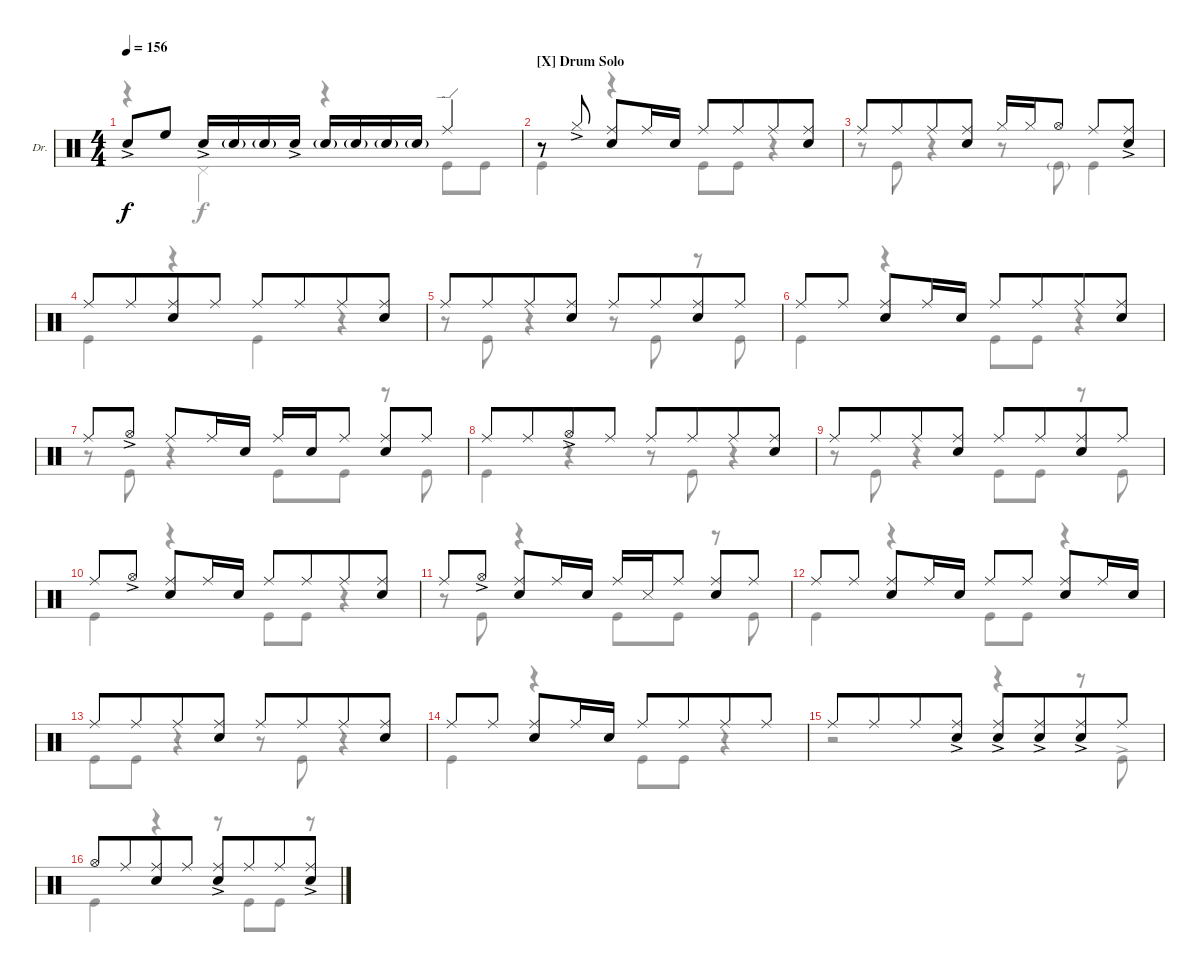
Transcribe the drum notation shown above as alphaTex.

\defaultSystemsLayout 4
\bracketExtendMode groupsimilarinstruments
\firstSystemTrackNameOrientation horizontal
\otherSystemsTrackNameOrientation horizontal
\track ("Drums" "Dr.") {instrument percussion}
\staff {score}
\articulation defaults
\voice
\ts (4 4)
\tempo 156
\clef neutral
\ks c "Snare (hit) 2"{ac}.8{dy f} "High Floor Tom (hit)".8 "Snare (hit) 2"{ac}.16 "Snare (hit) 2"{g}.16 "Snare (hit) 2"{g}.16 "Snare (hit) 2"{ac}.16 "Snare (hit) 2"{g}.16 "Snare (hit) 2"{g}.16 "Snare (hit) 2"{g}.16 "Snare (hit) 2"{g}.16 "Ride (edge)".4
|
\section ("X" "Drum Solo")
\scale
0.361744 r.8 "Hi-Hat (closed)"{ac}.8 ("Snare (hit) 2" "Ride (middle)").8 "Ride (middle)".16 "Snare (hit) 2".16 "Ride (middle)".8 "Ride (middle)".8{beam merge} "Ride (middle)".8 ("Snare (hit) 2" "Ride (middle)").8 |
\scale
0.365347 "Ride (middle)".8 "Ride (middle)".8{beam merge} "Ride (middle)".8 ("Snare (hit) 2" "Ride (middle)").8 "Hi-Hat (closed)".16 "Hi-Hat (closed)".16 "Hi-Hat (open)".8 "Ride (middle)".8 ("Snare (hit) 2"{ac} "Ride (middle)").8 |
\scale
0.272651 "Ride (middle)".8 "Ride (middle)".8{beam merge} ("Ride (middle)" "Snare (hit) 2").8 "Ride (middle)".8 "Ride (middle)".8 "Ride (middle)".8{beam merge} "Ride (middle)".8 ("Ride (middle)" "Snare (hit) 2").8 |
\scale
0.350987 "Ride (middle)".8 "Ride (middle)".8{beam merge} "Ride (middle)".8 ("Ride (middle)" "Snare (hit) 2").8 "Ride (middle)".8 "Ride (middle)".8{beam merge} ("Ride (middle)" "Snare (hit) 2").8 "Ride (middle)".8 |
\scale
0.32396 "Ride (middle)".8 "Ride (middle)".8{beam split} ("Ride (middle)" "Snare (hit) 2").8 "Ride (middle)".16 "Snare (hit) 2".16 "Ride (middle)".8 "Ride (middle)".8{beam merge} "Ride (middle)".8 ("Ride (middle)" "Snare (hit) 2").8 |
\scale
0.325552 "Ride (middle)".8 "Hi-Hat (open)"{ac}.8 "Ride (middle)".8 "Ride (middle)".16 "Snare (hit) 2".16 "Ride (middle)".16 "Snare (hit) 2".16 "Ride (middle)".8 ("Ride (middle)" "Snare (hit) 2").8 "Ride (middle)".8 |
\scale
0.325781 "Ride (middle)".8 "Ride (middle)".8{beam merge} "Hi-Hat (open)"{ac}.8 "Ride (middle)".8 "Ride (middle)".8 "Ride (middle)".8{beam merge} "Ride (middle)".8 ("Ride (middle)" "Snare (hit) 2").8 |
\scale
0.317767 "Ride (middle)".8 "Ride (middle)".8{beam merge} "Ride (middle)".8 ("Ride (middle)" "Snare (hit) 2").8 "Ride (middle)".8 "Ride (middle)".8{beam merge} ("Ride (middle)" "Snare (hit) 2").8 "Ride (middle)".8 |
\scale
0.356874 "Ride (middle)".8 "Hi-Hat (open)"{ac}.8{beam split} ("Ride (middle)" "Snare (hit) 2").8 "Ride (middle)".16 "Snare (hit) 2".16 "Ride (middle)".8 "Ride (middle)".8{beam merge} "Ride (middle)".8 ("Ride (middle)" "Snare (hit) 2").8 |
\scale
0.39749 "Ride (middle)".8 "Hi-Hat (open)"{ac}.8{beam split} ("Ride (middle)" "Snare (hit) 2").8 "Ride (middle)".16 "Snare (hit) 2".16 "Ride (middle)".16 "Snare (side stick) 3".16 "Ride (middle)".8 ("Ride (middle)" "Snare (hit) 2").8 "Ride (middle)".8 |
\scale
0.328241 "Ride (middle)".8 "Ride (middle)".8{beam split} ("Ride (middle)" "Snare (hit) 2").8 "Ride (middle)".16 "Snare (hit) 2".16 "Ride (middle)".8 "Ride (middle)".8{beam split} ("Ride (middle)" "Snare (hit) 2").8 "Ride (middle)".16 "Snare (hit) 2".16 |
\scale
0.274071 "Ride (middle)".8 "Ride (middle)".8{beam merge} "Ride (middle)".8 ("Ride (middle)" "Snare (hit) 2").8 "Ride (middle)".8 "Ride (middle)".8{beam merge} "Ride (middle)".8 ("Ride (middle)" "Snare (hit) 2").8 |
\scale
0.3946 "Ride (middle)".8 "Ride (middle)".8{beam split} ("Ride (middle)" "Snare (hit) 2").8 "Ride (middle)".16 "Snare (hit) 2".16 "Ride (middle)".8 "Ride (middle)".8{beam merge} "Ride (middle)".8 "Ride (middle)".8 |
\scale
0.309179 "Ride (middle)".8 "Ride (middle)".8{beam merge} "Ride (middle)".8 ("Ride (middle)" "Snare (hit) 2"{ac}).8 ("Ride (middle)" "Snare (hit) 2"{ac}).8 ("Ride (middle)" "Snare (hit) 2"{ac}).8{beam merge} ("Ride (middle)" "Snare (hit) 2"{ac}).8 "Ride (middle)".8 |
\scale
0.296027 "Hi-Hat (open)".8 "Ride (middle)".8{beam merge} ("Ride (middle)" "Snare (hit) 2").8 "Ride (middle)".8 ("Ride (middle)" "Snare (hit) 2"{ac}).8 "Ride (middle)".8{beam merge} "Ride (middle)".8 ("Ride (middle)" "Snare (hit) 2"{ac}).8
\voice
\clef neutral
\ottava regular
\simile none
\ks c
r.4{dy f} "Pedal Hi-Hat (hit)".4 r.4 "Kick (hit)".8 "Kick (hit)".8 |
\scale
0.361744 "Kick (hit)".4 r.4 "Kick (hit)".8 "Kick (hit)".8 r.4 |
\scale
0.365347 r.8 "Kick (hit)".8 r.4 r.8 "Kick (hit)"{g}.8 "Kick (hit)".4 |
\scale
0.272651 "Kick (hit)".4 r.4 "Kick (hit)".4 r.4 |
\scale
0.350987 r.8 "Kick (hit)".8 r.4 r.8 "Kick (hit)".8 r.8 "Kick (hit)".8 |
\scale
0.32396 "Kick (hit)".4 r.4 "Kick (hit)".8 "Kick (hit)".8 r.4 |
\scale
0.325552 r.8 "Kick (hit)".8 r.4 "Kick (hit)".8 "Kick (hit)".8 r.8 "Kick (hit)".8 |
\scale
0.325781 "Kick (hit)".4 r.4 r.8 "Kick (hit)".8 r.4 |
\scale
0.317767 r.8 "Kick (hit)".8 r.4 "Kick (hit)".8 "Kick (hit)".8 r.8 "Kick (hit)".8 |
\scale
0.356874 "Kick (hit)".4 r.4 "Kick (hit)".8 "Kick (hit)".8 r.4 |
\scale
0.39749 r.8 "Kick (hit)".8 r.4 "Kick (hit)".8 "Kick (hit)".8 r.8 "Kick (hit)".8 |
\scale
0.328241 "Kick (hit)".4 r.4 "Kick (hit)".8 "Kick (hit)".8 r.4 |
\scale
0.274071 "Kick (hit)".8 "Kick (hit)".8 r.4 r.8 "Kick (hit)".8 r.4 |
\scale
0.3946 "Kick (hit)".4 r.4 "Kick (hit)".8 "Kick (hit)".8 r.4 |
\scale
0.309179 r.2 r.4 r.8 "Kick (hit)"{ac}.8 |
\scale
0.296027 "Kick (hit)".4 r.4 r.8 "Kick (hit)".8{beam merge} "Kick (hit)".8{beam merge} r.8
